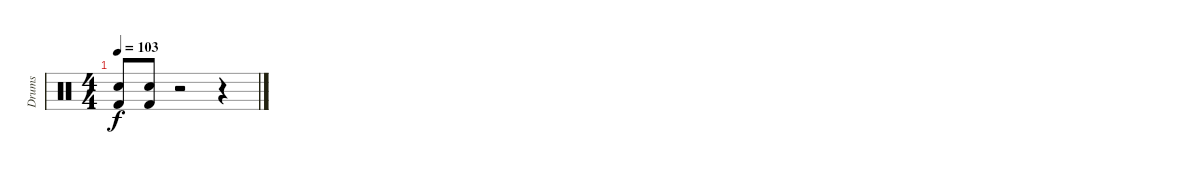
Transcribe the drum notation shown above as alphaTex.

\track ("Drums" "Drums") {instrument percussion}
\staff {score}
\articulation defaults
\ts (4 4)
\tempo 103
\clef neutral
\ks c
("Kick (hit) 2" "Snare (hit) 2").8{dy f} ("Kick (hit) 2" "Snare (hit) 2").8 r.2 r.4
